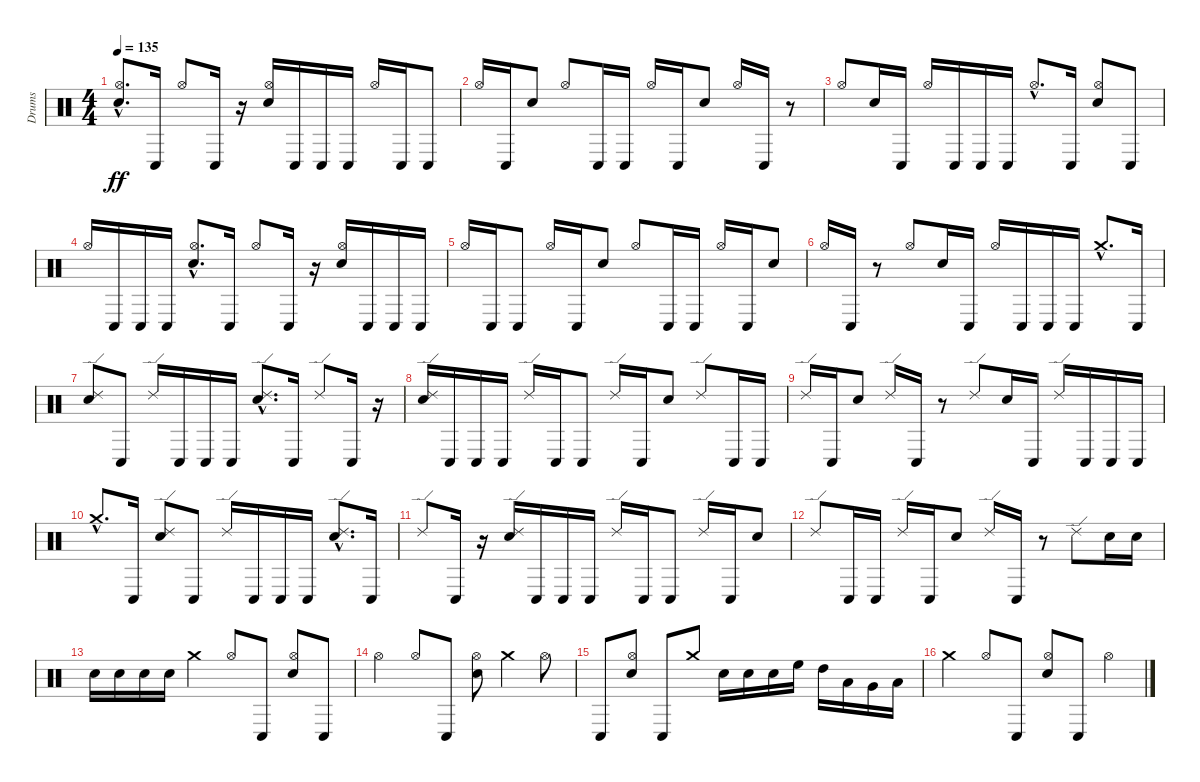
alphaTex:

\track ("Drums" "Drums") {instrument percussion}
\staff {score}
\articulation defaults
\ts (4 4)
\tempo 135
\clef neutral
\ks c
("Electric Snare (hit)"{hac} "Hi-Hat (open)"{hac}).8{d dy ff} "Conga low (hit)".16 "Hi-Hat (open)".8 "Conga low (hit)".16 r.16 ("Electric Snare (hit)" "Hi-Hat (open)").16 "Conga low (hit)".16 "Conga low (hit)".16 "Conga low (hit)".16 "Hi-Hat (open)".16 "Conga low (hit)".16 "Conga low (hit)".8 |
"Hi-Hat (open)".16 "Conga low (hit)".16 "Electric Snare (hit)".8 "Hi-Hat (open)".8 "Conga low (hit)".16 "Conga low (hit)".16 "Hi-Hat (open)".16 "Conga low (hit)".16 "Electric Snare (hit)".8 "Hi-Hat (open)".16 "Conga low (hit)".16 r.8 |
"Hi-Hat (open)".8 "Electric Snare (hit)".16 "Conga low (hit)".16 "Hi-Hat (open)".16 "Conga low (hit)".16 "Conga low (hit)".16 "Conga low (hit)".16 "Hi-Hat (open)"{hac}.8{d} "Conga low (hit)".16 ("Electric Snare (hit)" "Hi-Hat (open)").8 "Conga low (hit)".8 |
"Hi-Hat (open)".16 "Conga low (hit)".16 "Conga low (hit)".16 "Conga low (hit)".16 ("Electric Snare (hit)"{hac} "Hi-Hat (open)"{hac}).8{d} "Conga low (hit)".16 "Hi-Hat (open)".8 "Conga low (hit)".16 r.16 ("Electric Snare (hit)" "Hi-Hat (open)").16 "Conga low (hit)".16 "Conga low (hit)".16 "Conga low (hit)".16 |
"Hi-Hat (open)".16 "Conga low (hit)".16 "Conga low (hit)".8 "Hi-Hat (open)".16 "Conga low (hit)".16 "Electric Snare (hit)".8 "Hi-Hat (open)".8 "Conga low (hit)".16 "Conga low (hit)".16 "Hi-Hat (open)".16 "Conga low (hit)".16 "Electric Snare (hit)".8 |
"Hi-Hat (open)".16 "Conga low (hit)".16 r.8 "Hi-Hat (open)".8 "Electric Snare (hit)".16 "Conga low (hit)".16 "Hi-Hat (open)".16 "Conga low (hit)".16 "Conga low (hit)".16 "Conga low (hit)".16 "Crash medium (hit)"{hac}.8{d} "Conga low (hit)".16 |
("Electric Snare (hit)" "Ride (edge) 2").8 "Conga low (hit)".8 "Ride (edge) 2".16 "Conga low (hit)".16 "Conga low (hit)".16 "Conga low (hit)".16 ("Electric Snare (hit)"{hac} "Ride (edge) 2"{hac}).8{d} "Conga low (hit)".16 "Ride (edge) 2".8 "Conga low (hit)".16 r.16 |
("Electric Snare (hit)" "Ride (edge) 2").16 "Conga low (hit)".16 "Conga low (hit)".16 "Conga low (hit)".16 "Ride (edge) 2".16 "Conga low (hit)".16 "Conga low (hit)".8 "Ride (edge) 2".16 "Conga low (hit)".16 "Electric Snare (hit)".8 "Ride (edge) 2".8 "Conga low (hit)".16 "Conga low (hit)".16 |
"Ride (edge) 2".16 "Conga low (hit)".16 "Electric Snare (hit)".8 "Ride (edge) 2".16 "Conga low (hit)".16 r.8 "Ride (edge) 2".8 "Electric Snare (hit)".16 "Conga low (hit)".16 "Ride (edge) 2".16 "Conga low (hit)".16 "Conga low (hit)".16 "Conga low (hit)".16 |
"Crash medium (hit)"{hac}.8{d} "Conga low (hit)".16 ("Electric Snare (hit)" "Ride (edge) 2").8 "Conga low (hit)".8 "Ride (edge) 2".16 "Conga low (hit)".16 "Conga low (hit)".16 "Conga low (hit)".16 ("Electric Snare (hit)"{hac} "Ride (edge) 2"{hac}).8{d} "Conga low (hit)".16 |
"Ride (edge) 2".8 "Conga low (hit)".16 r.16 ("Electric Snare (hit)" "Ride (edge) 2").16 "Conga low (hit)".16 "Conga low (hit)".16 "Conga low (hit)".16 "Ride (edge) 2".16 "Conga low (hit)".16 "Conga low (hit)".8 "Ride (edge) 2".16 "Conga low (hit)".16 "Electric Snare (hit)".8 |
"Ride (edge) 2".8 "Conga low (hit)".16 "Conga low (hit)".16 "Ride (edge) 2".16 "Conga low (hit)".16 "Electric Snare (hit)".8 "Ride (edge) 2".16 "Conga low (hit)".16 r.8 "Ride (edge) 2".8 "Electric Snare (hit)".16 "Electric Snare (hit)".16 |
"Electric Snare (hit)".16 "Electric Snare (hit)".16 "Electric Snare (hit)".16 "Electric Snare (hit)".16 "Crash medium (hit)".4 "Hi-Hat (open)".8 "Conga low (hit)".8 ("Electric Snare (hit)" "Hi-Hat (open)").8 "Conga low (hit)".8 |
"Hi-Hat (open)".4 "Hi-Hat (open)".8 "Conga low (hit)".8 ("Electric Snare (hit)" "Hi-Hat (open)").8 "Crash medium (hit)".4 "Hi-Hat (open)".8 |
"Conga low (hit)".8 ("Electric Snare (hit)" "Hi-Hat (open)").8 "Conga low (hit)".8 "Crash medium (hit)".8 "Electric Snare (hit)".16 "Electric Snare (hit)".16 "Electric Snare (hit)".16 "High Floor Tom (hit)".16 "High Tom (hit)".16 "Low Tom (hit)".16 "Very Low Tom (hit)".16 "Low Floor Tom (hit)".16 |
"Crash medium (hit)".4 "Hi-Hat (open)".8 "Conga low (hit)".8 ("Electric Snare (hit)" "Hi-Hat (open)").8 "Conga low (hit)".8 "Hi-Hat (open)".4
